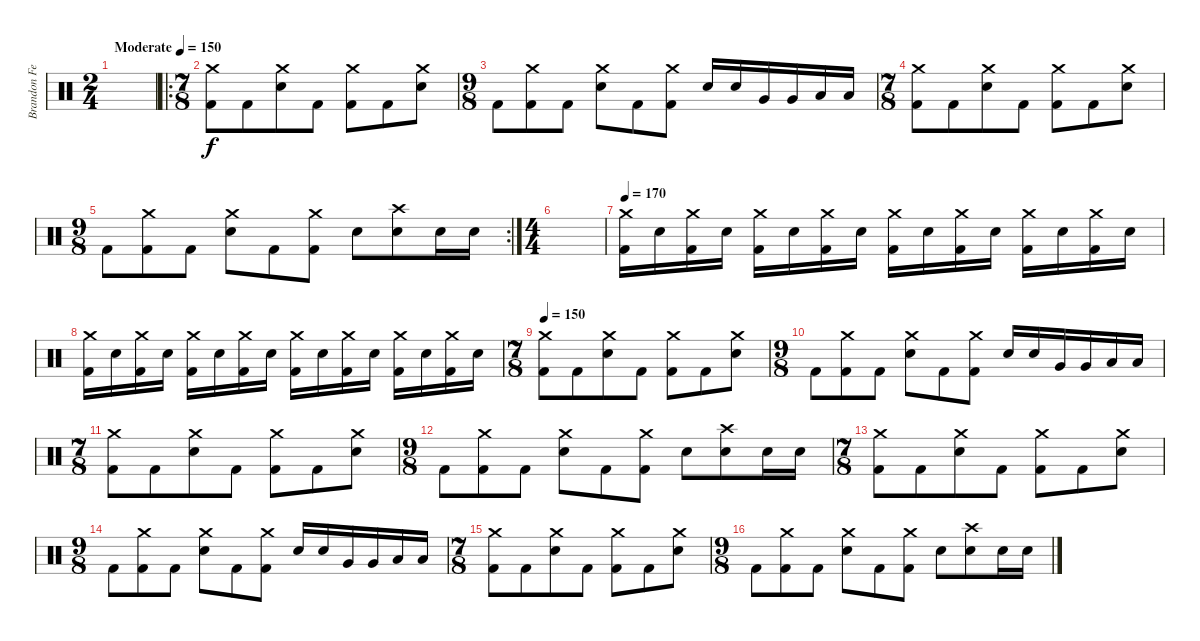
\track ("Brandon Ferrell" "Brandon Fe") {instrument percussion}
\staff {score}
\articulation defaults
\ts (2 4)
\tempo (150 "Moderate")
\clef neutral
\ks c
|
\ro
\ts (7 8)
("Crash medium (hit)" "Kick (hit) 2").8 "Kick (hit) 2".8 ("Crash medium (hit)" "Electric Snare (hit)").8 "Kick (hit) 2".8 ("Crash medium (hit)" "Kick (hit) 2").8 "Kick (hit) 2".8 ("Crash medium (hit)" "Electric Snare (hit)").8 |
\ts (9 8)
"Kick (hit) 2".8 ("Crash medium (hit)" "Kick (hit) 2").8 "Kick (hit) 2".8 ("Crash medium (hit)" "Electric Snare (hit)").8 "Kick (hit) 2".8 ("Crash medium (hit)" "Kick (hit) 2").8 "Electric Snare (hit)".16 "Electric Snare (hit)".16 "Very Low Tom (hit)".16 "Very Low Tom (hit)".16 "Low Floor Tom (hit)".16 "Low Floor Tom (hit)".16 |
\ts (7 8)
("Crash medium (hit)" "Kick (hit) 2").8 "Kick (hit) 2".8 ("Crash medium (hit)" "Electric Snare (hit)").8 "Kick (hit) 2".8 ("Crash medium (hit)" "Kick (hit) 2").8 "Kick (hit) 2".8 ("Crash medium (hit)" "Electric Snare (hit)").8 |
\rc 2
\ts (9 8)
"Kick (hit) 2".8 ("Crash medium (hit)" "Kick (hit) 2").8 "Kick (hit) 2".8 ("Crash medium (hit)" "Electric Snare (hit)").8 "Kick (hit) 2".8 ("Crash medium (hit)" "Kick (hit) 2").8 "Electric Snare (hit)".8 ("Crash high (hit)" "Electric Snare (hit)").8 "Electric Snare (hit)".16 "Electric Snare (hit)".16 |
\ts (4 4)
|
\tempo 170
("Crash medium (hit)" "Kick (hit) 2").16 "Electric Snare (hit)".16 ("Crash medium (hit)" "Kick (hit) 2").16 "Electric Snare (hit)".16 ("Crash medium (hit)" "Kick (hit) 2").16 "Electric Snare (hit)".16 ("Crash medium (hit)" "Kick (hit) 2").16 "Electric Snare (hit)".16 ("Crash medium (hit)" "Kick (hit) 2").16 "Electric Snare (hit)".16 ("Crash medium (hit)" "Kick (hit) 2").16 "Electric Snare (hit)".16 ("Crash medium (hit)" "Kick (hit) 2").16 "Electric Snare (hit)".16 ("Crash medium (hit)" "Kick (hit) 2").16 "Electric Snare (hit)".16 |
("Crash medium (hit)" "Kick (hit) 2").16 "Electric Snare (hit)".16 ("Crash medium (hit)" "Kick (hit) 2").16 "Electric Snare (hit)".16 ("Crash medium (hit)" "Kick (hit) 2").16 "Electric Snare (hit)".16 ("Crash medium (hit)" "Kick (hit) 2").16 "Electric Snare (hit)".16 ("Crash medium (hit)" "Kick (hit) 2").16 "Electric Snare (hit)".16 ("Crash medium (hit)" "Kick (hit) 2").16 "Electric Snare (hit)".16 ("Crash medium (hit)" "Kick (hit) 2").16 "Electric Snare (hit)".16 ("Crash medium (hit)" "Kick (hit) 2").16 "Electric Snare (hit)".16 |
\ts (7 8)
\tempo 150
("Crash medium (hit)" "Kick (hit) 2").8 "Kick (hit) 2".8 ("Crash medium (hit)" "Electric Snare (hit)").8 "Kick (hit) 2".8 ("Crash medium (hit)" "Kick (hit) 2").8 "Kick (hit) 2".8 ("Crash medium (hit)" "Electric Snare (hit)").8 |
\ts (9 8)
"Kick (hit) 2".8 ("Crash medium (hit)" "Kick (hit) 2").8 "Kick (hit) 2".8 ("Crash medium (hit)" "Electric Snare (hit)").8 "Kick (hit) 2".8 ("Crash medium (hit)" "Kick (hit) 2").8 "Electric Snare (hit)".16 "Electric Snare (hit)".16 "Very Low Tom (hit)".16 "Very Low Tom (hit)".16 "Low Floor Tom (hit)".16 "Low Floor Tom (hit)".16 |
\ts (7 8)
("Crash medium (hit)" "Kick (hit) 2").8 "Kick (hit) 2".8 ("Crash medium (hit)" "Electric Snare (hit)").8 "Kick (hit) 2".8 ("Crash medium (hit)" "Kick (hit) 2").8 "Kick (hit) 2".8 ("Crash medium (hit)" "Electric Snare (hit)").8 |
\ts (9 8)
"Kick (hit) 2".8 ("Crash medium (hit)" "Kick (hit) 2").8 "Kick (hit) 2".8 ("Crash medium (hit)" "Electric Snare (hit)").8 "Kick (hit) 2".8 ("Crash medium (hit)" "Kick (hit) 2").8 "Electric Snare (hit)".8 ("Crash high (hit)" "Electric Snare (hit)").8 "Electric Snare (hit)".16 "Electric Snare (hit)".16 |
\ts (7 8)
("Crash medium (hit)" "Kick (hit) 2").8 "Kick (hit) 2".8 ("Crash medium (hit)" "Electric Snare (hit)").8 "Kick (hit) 2".8 ("Crash medium (hit)" "Kick (hit) 2").8 "Kick (hit) 2".8 ("Crash medium (hit)" "Electric Snare (hit)").8 |
\ts (9 8)
"Kick (hit) 2".8 ("Crash medium (hit)" "Kick (hit) 2").8 "Kick (hit) 2".8 ("Crash medium (hit)" "Electric Snare (hit)").8 "Kick (hit) 2".8 ("Crash medium (hit)" "Kick (hit) 2").8 "Electric Snare (hit)".16 "Electric Snare (hit)".16 "Very Low Tom (hit)".16 "Very Low Tom (hit)".16 "Low Floor Tom (hit)".16 "Low Floor Tom (hit)".16 |
\ts (7 8)
("Crash medium (hit)" "Kick (hit) 2").8 "Kick (hit) 2".8 ("Crash medium (hit)" "Electric Snare (hit)").8 "Kick (hit) 2".8 ("Crash medium (hit)" "Kick (hit) 2").8 "Kick (hit) 2".8 ("Crash medium (hit)" "Electric Snare (hit)").8 |
\ts (9 8)
"Kick (hit) 2".8 ("Crash medium (hit)" "Kick (hit) 2").8 "Kick (hit) 2".8 ("Crash medium (hit)" "Electric Snare (hit)").8 "Kick (hit) 2".8 ("Crash medium (hit)" "Kick (hit) 2").8 "Electric Snare (hit)".8 ("Crash high (hit)" "Electric Snare (hit)").8 "Electric Snare (hit)".16 "Electric Snare (hit)".16
